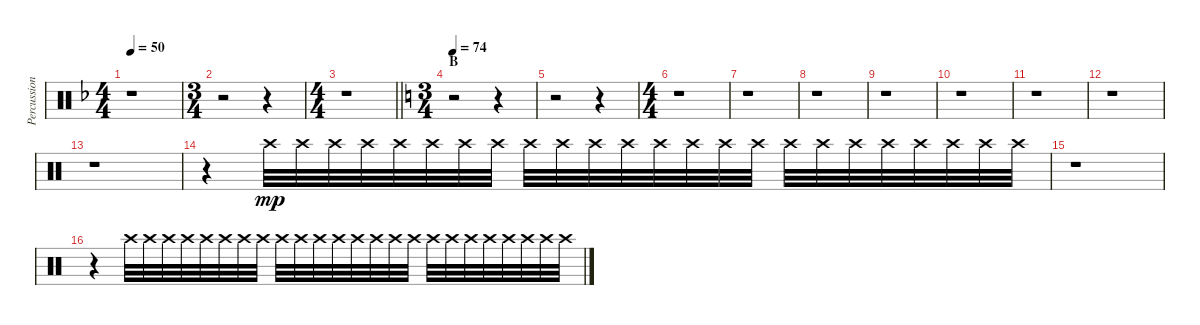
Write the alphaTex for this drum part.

\track ("Percussion" "Percussion") {instrument percussion}
\staff {score}
\articulation defaults
\ts (4 4)
\tempo 50
\clef neutral
\ks f
r.1{dy mp} |
\ts (3 4)
r.2 r.4 |
\ts (4 4)
\barLineRight lightlight
r.1 |
\ts (3 4)
\section ("" "B")
\tempo 74
\ks c
r.2 r.4 |
r.2 r.4 |
\ts (4 4)
r.1 |
r.1 |
r.1 |
r.1 |
r.1 |
r.1 |
r.1 |
r.1 |
r.4 "Crash high (hit)".32 "Crash high (hit)".32 "Crash high (hit)".32 "Crash high (hit)".32 "Crash high (hit)".32 "Crash high (hit)".32 "Crash high (hit)".32 "Crash high (hit)".32 "Crash high (hit)".32 "Crash high (hit)".32 "Crash high (hit)".32 "Crash high (hit)".32 "Crash high (hit)".32 "Crash high (hit)".32 "Crash high (hit)".32 "Crash high (hit)".32 "Crash high (hit)".32 "Crash high (hit)".32 "Crash high (hit)".32 "Crash high (hit)".32 "Crash high (hit)".32 "Crash high (hit)".32 "Crash high (hit)".32 "Crash high (hit)".32 |
r.1 |
r.4 "Crash high (hit)".32 "Crash high (hit)".32 "Crash high (hit)".32 "Crash high (hit)".32 "Crash high (hit)".32 "Crash high (hit)".32 "Crash high (hit)".32 "Crash high (hit)".32 "Crash high (hit)".32 "Crash high (hit)".32 "Crash high (hit)".32 "Crash high (hit)".32 "Crash high (hit)".32 "Crash high (hit)".32 "Crash high (hit)".32 "Crash high (hit)".32 "Crash high (hit)".32 "Crash high (hit)".32 "Crash high (hit)".32 "Crash high (hit)".32 "Crash high (hit)".32 "Crash high (hit)".32 "Crash high (hit)".32 "Crash high (hit)".32
